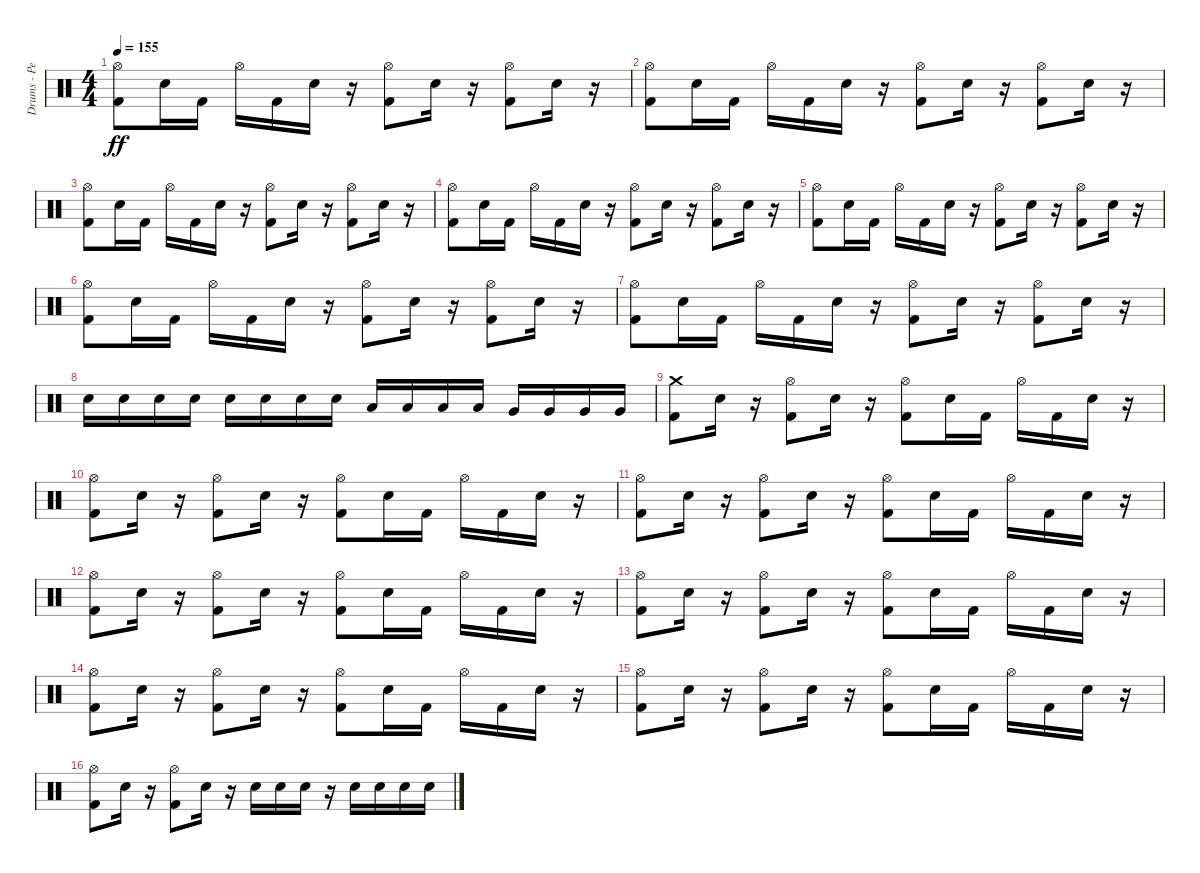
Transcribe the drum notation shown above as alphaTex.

\track ("Drums - Pete Finestone" "Drums - Pe") {instrument percussion}
\staff {score}
\articulation defaults
\ts (4 4)
\tempo 155
\clef neutral
\ks c
("Kick (hit) 2" "Hi-Hat (open)").8{dy ff} "Electric Snare (hit)".16 "Kick (hit) 2".16 "Hi-Hat (open)".16 "Kick (hit) 2".16 "Electric Snare (hit)".16 r.16 ("Hi-Hat (open)" "Kick (hit) 2").8 "Electric Snare (hit)".16 r.16 ("Hi-Hat (open)" "Kick (hit) 2").8 "Electric Snare (hit)".16 r.16 |
("Kick (hit) 2" "Hi-Hat (open)").8 "Electric Snare (hit)".16 "Kick (hit) 2".16 "Hi-Hat (open)".16 "Kick (hit) 2".16 "Electric Snare (hit)".16 r.16 ("Hi-Hat (open)" "Kick (hit) 2").8 "Electric Snare (hit)".16 r.16 ("Hi-Hat (open)" "Kick (hit) 2").8 "Electric Snare (hit)".16 r.16 |
("Kick (hit) 2" "Hi-Hat (open)").8 "Electric Snare (hit)".16 "Kick (hit) 2".16 "Hi-Hat (open)".16 "Kick (hit) 2".16 "Electric Snare (hit)".16 r.16 ("Hi-Hat (open)" "Kick (hit) 2").8 "Electric Snare (hit)".16 r.16 ("Hi-Hat (open)" "Kick (hit) 2").8 "Electric Snare (hit)".16 r.16 |
("Kick (hit) 2" "Hi-Hat (open)").8 "Electric Snare (hit)".16 "Kick (hit) 2".16 "Hi-Hat (open)".16 "Kick (hit) 2".16 "Electric Snare (hit)".16 r.16 ("Hi-Hat (open)" "Kick (hit) 2").8 "Electric Snare (hit)".16 r.16 ("Hi-Hat (open)" "Kick (hit) 2").8 "Electric Snare (hit)".16 r.16 |
("Kick (hit) 2" "Hi-Hat (open)").8 "Electric Snare (hit)".16 "Kick (hit) 2".16 "Hi-Hat (open)".16 "Kick (hit) 2".16 "Electric Snare (hit)".16 r.16 ("Hi-Hat (open)" "Kick (hit) 2").8 "Electric Snare (hit)".16 r.16 ("Hi-Hat (open)" "Kick (hit) 2").8 "Electric Snare (hit)".16 r.16 |
("Kick (hit) 2" "Hi-Hat (open)").8 "Electric Snare (hit)".16 "Kick (hit) 2".16 "Hi-Hat (open)".16 "Kick (hit) 2".16 "Electric Snare (hit)".16 r.16 ("Hi-Hat (open)" "Kick (hit) 2").8 "Electric Snare (hit)".16 r.16 ("Hi-Hat (open)" "Kick (hit) 2").8 "Electric Snare (hit)".16 r.16 |
("Kick (hit) 2" "Hi-Hat (open)").8 "Electric Snare (hit)".16 "Kick (hit) 2".16 "Hi-Hat (open)".16 "Kick (hit) 2".16 "Electric Snare (hit)".16 r.16 ("Hi-Hat (open)" "Kick (hit) 2").8 "Electric Snare (hit)".16 r.16 ("Hi-Hat (open)" "Kick (hit) 2").8 "Electric Snare (hit)".16 r.16 |
"Electric Snare (hit)".16 "Electric Snare (hit)".16 "Electric Snare (hit)".16 "Electric Snare (hit)".16 "Electric Snare (hit)".16 "Electric Snare (hit)".16 "Electric Snare (hit)".16 "Electric Snare (hit)".16 "Low Tom (hit)".16 "Low Tom (hit)".16 "Low Tom (hit)".16 "Low Tom (hit)".16 "Very Low Tom (hit)".16 "Very Low Tom (hit)".16 "Very Low Tom (hit)".16 "Very Low Tom (hit)".16 |
("Crash medium (hit)" "Kick (hit) 2").8 "Electric Snare (hit)".16 r.16 ("Hi-Hat (open)" "Kick (hit) 2").8 "Electric Snare (hit)".16 r.16 ("Hi-Hat (open)" "Kick (hit) 2").8 "Electric Snare (hit)".16 "Kick (hit) 2".16 "Hi-Hat (open)".16 "Kick (hit) 2".16 "Electric Snare (hit)".16 r.16 |
("Hi-Hat (open)" "Kick (hit) 2").8 "Electric Snare (hit)".16 r.16 ("Hi-Hat (open)" "Kick (hit) 2").8 "Electric Snare (hit)".16 r.16 ("Hi-Hat (open)" "Kick (hit) 2").8 "Electric Snare (hit)".16 "Kick (hit) 2".16 "Hi-Hat (open)".16 "Kick (hit) 2".16 "Electric Snare (hit)".16 r.16 |
("Hi-Hat (open)" "Kick (hit) 2").8 "Electric Snare (hit)".16 r.16 ("Hi-Hat (open)" "Kick (hit) 2").8 "Electric Snare (hit)".16 r.16 ("Hi-Hat (open)" "Kick (hit) 2").8 "Electric Snare (hit)".16 "Kick (hit) 2".16 "Hi-Hat (open)".16 "Kick (hit) 2".16 "Electric Snare (hit)".16 r.16 |
("Hi-Hat (open)" "Kick (hit) 2").8 "Electric Snare (hit)".16 r.16 ("Hi-Hat (open)" "Kick (hit) 2").8 "Electric Snare (hit)".16 r.16 ("Hi-Hat (open)" "Kick (hit) 2").8 "Electric Snare (hit)".16 "Kick (hit) 2".16 "Hi-Hat (open)".16 "Kick (hit) 2".16 "Electric Snare (hit)".16 r.16 |
("Hi-Hat (open)" "Kick (hit) 2").8 "Electric Snare (hit)".16 r.16 ("Hi-Hat (open)" "Kick (hit) 2").8 "Electric Snare (hit)".16 r.16 ("Hi-Hat (open)" "Kick (hit) 2").8 "Electric Snare (hit)".16 "Kick (hit) 2".16 "Hi-Hat (open)".16 "Kick (hit) 2".16 "Electric Snare (hit)".16 r.16 |
("Hi-Hat (open)" "Kick (hit) 2").8 "Electric Snare (hit)".16 r.16 ("Hi-Hat (open)" "Kick (hit) 2").8 "Electric Snare (hit)".16 r.16 ("Hi-Hat (open)" "Kick (hit) 2").8 "Electric Snare (hit)".16 "Kick (hit) 2".16 "Hi-Hat (open)".16 "Kick (hit) 2".16 "Electric Snare (hit)".16 r.16 |
("Hi-Hat (open)" "Kick (hit) 2").8 "Electric Snare (hit)".16 r.16 ("Hi-Hat (open)" "Kick (hit) 2").8 "Electric Snare (hit)".16 r.16 ("Hi-Hat (open)" "Kick (hit) 2").8 "Electric Snare (hit)".16 "Kick (hit) 2".16 "Hi-Hat (open)".16 "Kick (hit) 2".16 "Electric Snare (hit)".16 r.16 |
("Hi-Hat (open)" "Kick (hit) 2").8 "Electric Snare (hit)".16 r.16 ("Hi-Hat (open)" "Kick (hit) 2").8 "Electric Snare (hit)".16 r.16 "Electric Snare (hit)".16 "Electric Snare (hit)".16 "Electric Snare (hit)".16 r.16 "Electric Snare (hit)".16 "Electric Snare (hit)".16 "Electric Snare (hit)".16 "Electric Snare (hit)".16
